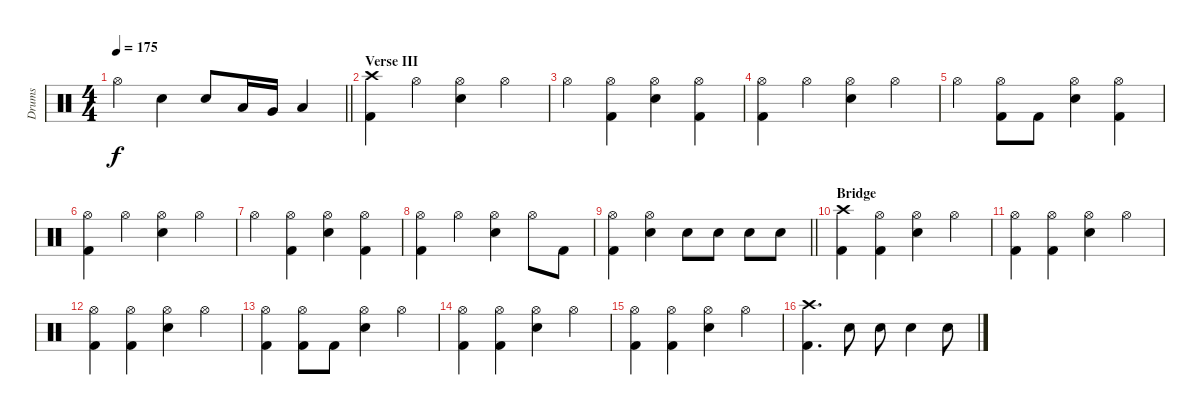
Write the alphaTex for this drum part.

\track ("Drums" "Drums") {instrument percussion}
\staff {score}
\articulation defaults
\ts (4 4)
\tempo 175
\clef neutral
\barLineRight lightlight
\ks c "Hi-Hat (open)".4{dy f} "Snare (hit) 2".4 "Snare (hit) 2".8 "Low Tom (hit)".16 "Very Low Tom (hit)".16 "Low Floor Tom (hit)".4
|
\section ("" "Verse III")
("Crash high (hit)" "Kick (hit) 2").4 "Hi-Hat (open)".4 ("Hi-Hat (open)" "Snare (hit) 2").4 "Hi-Hat (open)".4 |
"Hi-Hat (open)".4 ("Hi-Hat (open)" "Kick (hit) 2").4 ("Hi-Hat (open)" "Snare (hit) 2").4 ("Hi-Hat (open)" "Kick (hit) 2").4 |
("Hi-Hat (open)" "Kick (hit) 2").4 "Hi-Hat (open)".4 ("Hi-Hat (open)" "Snare (hit) 2").4 "Hi-Hat (open)".4 |
"Hi-Hat (open)".4 ("Hi-Hat (open)" "Kick (hit) 2").8 "Kick (hit) 2".8 ("Hi-Hat (open)" "Snare (hit) 2").4 ("Hi-Hat (open)" "Kick (hit) 2").4 |
("Hi-Hat (open)" "Kick (hit) 2").4 "Hi-Hat (open)".4 ("Hi-Hat (open)" "Snare (hit) 2").4 "Hi-Hat (open)".4 |
"Hi-Hat (open)".4 ("Hi-Hat (open)" "Kick (hit) 2").4 ("Hi-Hat (open)" "Snare (hit) 2").4 ("Hi-Hat (open)" "Kick (hit) 2").4 |
("Hi-Hat (open)" "Kick (hit) 2").4 "Hi-Hat (open)".4 ("Hi-Hat (open)" "Snare (hit) 2").4 "Hi-Hat (open)".8 "Kick (hit) 2".8 |
\barLineRight lightlight
("Hi-Hat (open)" "Kick (hit) 2").4 ("Hi-Hat (open)" "Snare (hit) 2").4 "Snare (hit) 2".8 "Snare (hit) 2".8 "Snare (hit) 2".8 "Snare (hit) 2".8 |
\section ("" "Bridge")
("Crash high (hit)" "Kick (hit) 2").4 ("Hi-Hat (open)" "Kick (hit) 2").4 ("Hi-Hat (open)" "Snare (hit) 2").4 "Hi-Hat (open)".4 |
("Hi-Hat (open)" "Kick (hit) 2").4 ("Hi-Hat (open)" "Kick (hit) 2").4 ("Hi-Hat (open)" "Snare (hit) 2").4 "Hi-Hat (open)".4 |
("Hi-Hat (open)" "Kick (hit) 2").4 ("Hi-Hat (open)" "Kick (hit) 2").4 ("Hi-Hat (open)" "Snare (hit) 2").4 "Hi-Hat (open)".4 |
("Hi-Hat (open)" "Kick (hit) 2").4 ("Hi-Hat (open)" "Kick (hit) 2").8 "Kick (hit) 2".8 ("Hi-Hat (open)" "Snare (hit) 2").4 "Hi-Hat (open)".4 |
("Hi-Hat (open)" "Kick (hit) 2").4 ("Hi-Hat (open)" "Kick (hit) 2").4 ("Hi-Hat (open)" "Snare (hit) 2").4 "Hi-Hat (open)".4 |
("Hi-Hat (open)" "Kick (hit) 2").4 ("Hi-Hat (open)" "Kick (hit) 2").4 ("Hi-Hat (open)" "Snare (hit) 2").4 "Hi-Hat (open)".4 |
("Crash high (hit)" "Kick (hit) 2").4{d} "Snare (hit) 2".8 "Snare (hit) 2".8 "Snare (hit) 2".4 "Snare (hit) 2".8
